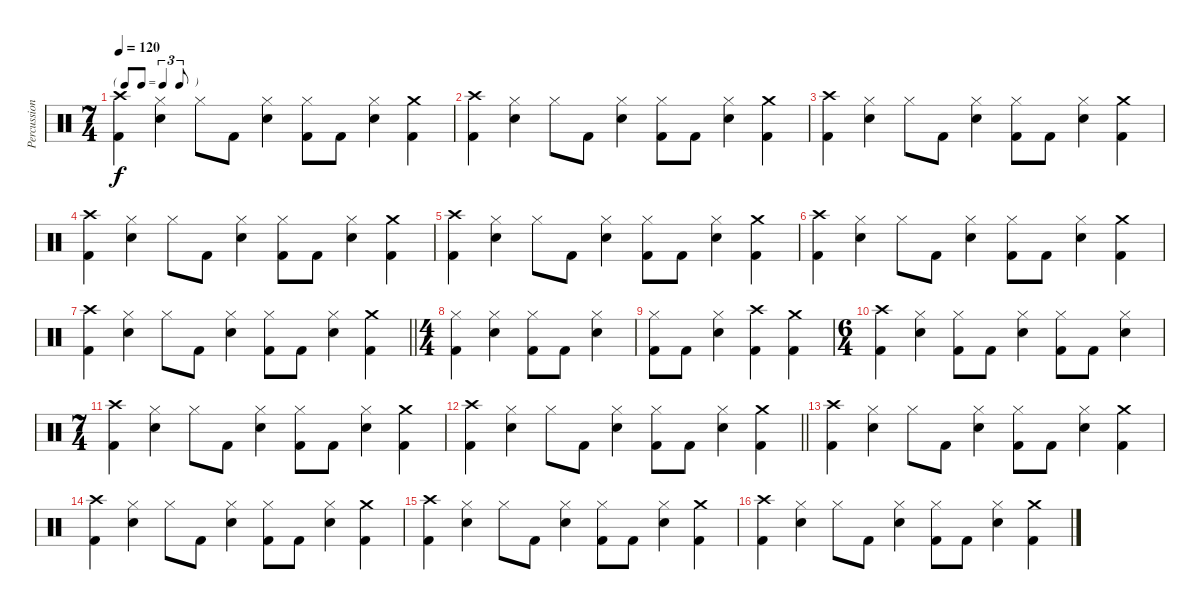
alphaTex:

\track ("Percussion" "Percussion") {instrument percussion}
\staff {score}
\articulation defaults
\ts (7 4)
\tf triplet8th
\tempo 120
\clef neutral
\ks c
("Crash high (hit)" "Kick (hit) 2").4{dy f} ("Hi-Hat (closed)" "Electric Snare (hit)").4 "Hi-Hat (closed)".8 "Kick (hit) 2".8 ("Hi-Hat (closed)" "Electric Snare (hit)").4 ("Hi-Hat (closed)" "Kick (hit) 2").8 "Kick (hit) 2".8 ("Hi-Hat (closed)" "Electric Snare (hit)").4 ("Crash medium (hit)" "Kick (hit) 2").4 |
("Crash high (hit)" "Kick (hit) 2").4 ("Hi-Hat (closed)" "Electric Snare (hit)").4 "Hi-Hat (closed)".8 "Kick (hit) 2".8 ("Hi-Hat (closed)" "Electric Snare (hit)").4 ("Hi-Hat (closed)" "Kick (hit) 2").8 "Kick (hit) 2".8 ("Hi-Hat (closed)" "Electric Snare (hit)").4 ("Crash medium (hit)" "Kick (hit) 2").4 |
("Crash high (hit)" "Kick (hit) 2").4 ("Hi-Hat (closed)" "Electric Snare (hit)").4 "Hi-Hat (closed)".8 "Kick (hit) 2".8 ("Hi-Hat (closed)" "Electric Snare (hit)").4 ("Hi-Hat (closed)" "Kick (hit) 2").8 "Kick (hit) 2".8 ("Hi-Hat (closed)" "Electric Snare (hit)").4 ("Crash medium (hit)" "Kick (hit) 2").4 |
("Crash high (hit)" "Kick (hit) 2").4 ("Hi-Hat (closed)" "Electric Snare (hit)").4 "Hi-Hat (closed)".8 "Kick (hit) 2".8 ("Hi-Hat (closed)" "Electric Snare (hit)").4 ("Hi-Hat (closed)" "Kick (hit) 2").8 "Kick (hit) 2".8 ("Hi-Hat (closed)" "Electric Snare (hit)").4 ("Crash medium (hit)" "Kick (hit) 2").4 |
("Crash high (hit)" "Kick (hit) 2").4 ("Hi-Hat (closed)" "Electric Snare (hit)").4 "Hi-Hat (closed)".8 "Kick (hit) 2".8 ("Hi-Hat (closed)" "Electric Snare (hit)").4 ("Hi-Hat (closed)" "Kick (hit) 2").8 "Kick (hit) 2".8 ("Hi-Hat (closed)" "Electric Snare (hit)").4 ("Crash medium (hit)" "Kick (hit) 2").4 |
("Crash high (hit)" "Kick (hit) 2").4 ("Hi-Hat (closed)" "Electric Snare (hit)").4 "Hi-Hat (closed)".8 "Kick (hit) 2".8 ("Hi-Hat (closed)" "Electric Snare (hit)").4 ("Hi-Hat (closed)" "Kick (hit) 2").8 "Kick (hit) 2".8 ("Hi-Hat (closed)" "Electric Snare (hit)").4 ("Crash medium (hit)" "Kick (hit) 2").4 |
\barLineRight lightlight
("Crash high (hit)" "Kick (hit) 2").4 ("Hi-Hat (closed)" "Electric Snare (hit)").4 "Hi-Hat (closed)".8 "Kick (hit) 2".8 ("Hi-Hat (closed)" "Electric Snare (hit)").4 ("Hi-Hat (closed)" "Kick (hit) 2").8 "Kick (hit) 2".8 ("Hi-Hat (closed)" "Electric Snare (hit)").4 ("Crash medium (hit)" "Kick (hit) 2").4 |
\ts (4 4)
("Hi-Hat (closed)" "Kick (hit) 2").4 ("Hi-Hat (closed)" "Electric Snare (hit)").4 ("Hi-Hat (closed)" "Kick (hit) 2").8 "Kick (hit) 2".8 ("Hi-Hat (closed)" "Electric Snare (hit)").4 |
("Hi-Hat (closed)" "Kick (hit) 2").8 "Kick (hit) 2".8 ("Hi-Hat (closed)" "Electric Snare (hit)").4 ("Crash high (hit)" "Kick (hit) 2").4 ("Crash medium (hit)" "Kick (hit) 2").4 |
\ts (6 4)
("Crash high (hit)" "Kick (hit) 2").4 ("Hi-Hat (closed)" "Electric Snare (hit)").4 ("Hi-Hat (closed)" "Kick (hit) 2").8 "Kick (hit) 2".8 ("Hi-Hat (closed)" "Electric Snare (hit)").4 ("Hi-Hat (closed)" "Kick (hit) 2").8 "Kick (hit) 2".8 ("Hi-Hat (closed)" "Electric Snare (hit)").4 |
\ts (7 4)
("Crash high (hit)" "Kick (hit) 2").4 ("Hi-Hat (closed)" "Electric Snare (hit)").4 "Hi-Hat (closed)".8 "Kick (hit) 2".8 ("Hi-Hat (closed)" "Electric Snare (hit)").4 ("Hi-Hat (closed)" "Kick (hit) 2").8 "Kick (hit) 2".8 ("Hi-Hat (closed)" "Electric Snare (hit)").4 ("Crash medium (hit)" "Kick (hit) 2").4 |
\barLineRight lightlight
("Crash high (hit)" "Kick (hit) 2").4 ("Hi-Hat (closed)" "Electric Snare (hit)").4 "Hi-Hat (closed)".8 "Kick (hit) 2".8 ("Hi-Hat (closed)" "Electric Snare (hit)").4 ("Hi-Hat (closed)" "Kick (hit) 2").8 "Kick (hit) 2".8 ("Hi-Hat (closed)" "Electric Snare (hit)").4 ("Crash medium (hit)" "Kick (hit) 2").4 |
("Crash high (hit)" "Kick (hit) 2").4 ("Hi-Hat (closed)" "Electric Snare (hit)").4 "Hi-Hat (closed)".8 "Kick (hit) 2".8 ("Hi-Hat (closed)" "Electric Snare (hit)").4 ("Hi-Hat (closed)" "Kick (hit) 2").8 "Kick (hit) 2".8 ("Hi-Hat (closed)" "Electric Snare (hit)").4 ("Crash medium (hit)" "Kick (hit) 2").4 |
("Crash high (hit)" "Kick (hit) 2").4 ("Hi-Hat (closed)" "Electric Snare (hit)").4 "Hi-Hat (closed)".8 "Kick (hit) 2".8 ("Hi-Hat (closed)" "Electric Snare (hit)").4 ("Hi-Hat (closed)" "Kick (hit) 2").8 "Kick (hit) 2".8 ("Hi-Hat (closed)" "Electric Snare (hit)").4 ("Crash medium (hit)" "Kick (hit) 2").4 |
("Crash high (hit)" "Kick (hit) 2").4 ("Hi-Hat (closed)" "Electric Snare (hit)").4 "Hi-Hat (closed)".8 "Kick (hit) 2".8 ("Hi-Hat (closed)" "Electric Snare (hit)").4 ("Hi-Hat (closed)" "Kick (hit) 2").8 "Kick (hit) 2".8 ("Hi-Hat (closed)" "Electric Snare (hit)").4 ("Crash medium (hit)" "Kick (hit) 2").4 |
("Crash high (hit)" "Kick (hit) 2").4 ("Hi-Hat (closed)" "Electric Snare (hit)").4 "Hi-Hat (closed)".8 "Kick (hit) 2".8 ("Hi-Hat (closed)" "Electric Snare (hit)").4 ("Hi-Hat (closed)" "Kick (hit) 2").8 "Kick (hit) 2".8 ("Hi-Hat (closed)" "Electric Snare (hit)").4 ("Crash medium (hit)" "Kick (hit) 2").4
